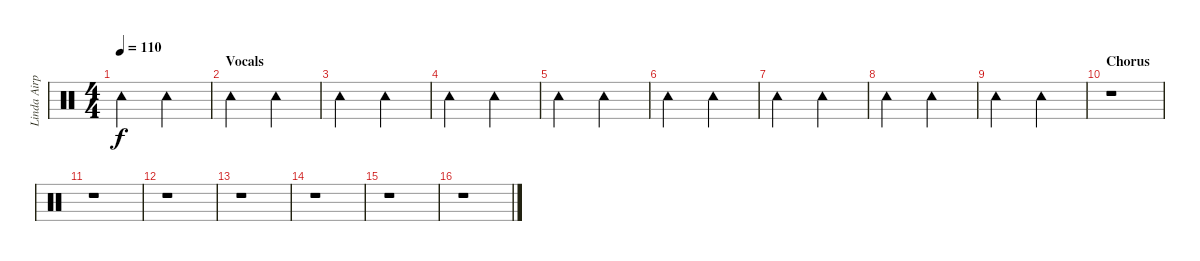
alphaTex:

\track ("Linda Airplane" "Linda Airp") {instrument percussion}
\staff {score}
\articulation defaults
\ts (4 4)
\tempo 110
\clef neutral
\ks c "Tambourine (hit)".2{dy f} "Tambourine (hit)".2
|
\section ("" "Vocals")
"Tambourine (hit)".2 "Tambourine (hit)".2 |
"Tambourine (hit)".2 "Tambourine (hit)".2 |
"Tambourine (hit)".2 "Tambourine (hit)".2 |
"Tambourine (hit)".2 "Tambourine (hit)".2 |
"Tambourine (hit)".2 "Tambourine (hit)".2 |
"Tambourine (hit)".2 "Tambourine (hit)".2 |
"Tambourine (hit)".2 "Tambourine (hit)".2 |
"Tambourine (hit)".2 "Tambourine (hit)".2 |
\section ("" "Chorus")
r.1 |
r.1 |
r.1 |
r.1 |
r.1 |
r.1 |
r.1
